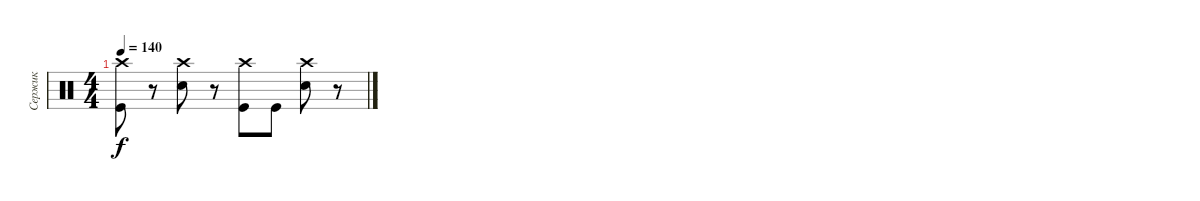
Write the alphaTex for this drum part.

\track ("Сержик" "Сержик") {instrument percussion}
\staff {score}
\articulation defaults
\ts (4 4)
\tempo 140
\clef neutral
\ks c
("Crash high (hit)" "Kick (hit)").8{dy f} r.8 ("Crash high (hit)" "Electric Snare (hit)").8 r.8 ("Crash high (hit)" "Kick (hit)").8 "Kick (hit)".8 ("Crash high (hit)" "Electric Snare (hit)").8 r.8
